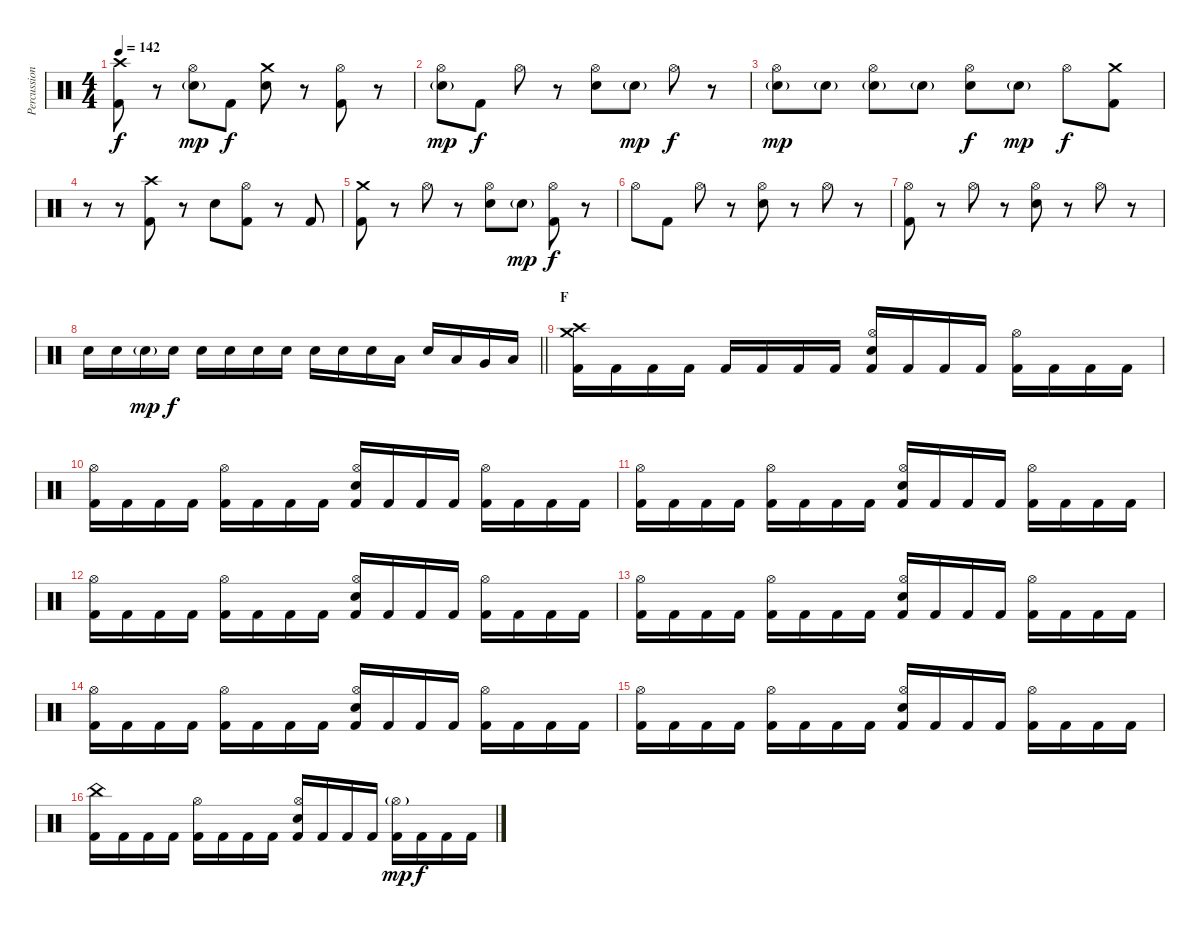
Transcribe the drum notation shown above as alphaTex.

\track ("Percussion" "Percussion") {instrument percussion}
\staff {score}
\articulation defaults
\ts (4 4)
\tempo 142
\clef neutral
\ks c
("Crash high (hit)" "Kick (hit) 2").8{dy f} r.8 ("Hi-Hat (open)" "Electric Snare (hit)"{g}).8{dy mp} "Kick (hit) 2".8{dy f} ("Crash medium (hit)" "Electric Snare (hit)").8 r.8 ("Hi-Hat (open)" "Kick (hit) 2").8 r.8 |
("Hi-Hat (open)" "Electric Snare (hit)"{g}).8{dy mp} "Kick (hit) 2".8{dy f} "Hi-Hat (open)".8 r.8 ("Hi-Hat (open)" "Electric Snare (hit)").8 "Electric Snare (hit)"{g}.8{dy mp} "Hi-Hat (open)".8{dy f} r.8 |
("Hi-Hat (open)" "Electric Snare (hit)"{g}).8{dy mp} "Electric Snare (hit)"{g}.8 ("Hi-Hat (open)" "Electric Snare (hit)"{g}).8 "Electric Snare (hit)"{g}.8 ("Hi-Hat (open)" "Electric Snare (hit)").8{dy f} "Electric Snare (hit)"{g}.8{dy mp} "Hi-Hat (open)".8{dy f} ("Crash medium (hit)" "Kick (hit) 2").8 |
r.8 r.8 ("Crash high (hit)" "Kick (hit) 2").8 r.8 "Electric Snare (hit)".8 ("Hi-Hat (open)" "Kick (hit) 2").8 r.8 "Kick (hit) 2".8 |
("Crash medium (hit)" "Kick (hit) 2").8 r.8 "Hi-Hat (open)".8 r.8 ("Hi-Hat (open)" "Electric Snare (hit)").8 "Electric Snare (hit)"{g}.8{dy mp} ("Hi-Hat (open)" "Kick (hit) 2").8{dy f} r.8 |
"Hi-Hat (open)".8 "Kick (hit) 2".8 "Hi-Hat (open)".8 r.8 ("Hi-Hat (open)" "Electric Snare (hit)").8 r.8 "Hi-Hat (open)".8 r.8 |
("Hi-Hat (open)" "Kick (hit) 2").8 r.8 "Hi-Hat (open)".8 r.8 ("Hi-Hat (open)" "Electric Snare (hit)").8 r.8 "Hi-Hat (open)".8 r.8 |
\barLineRight lightlight "Electric Snare (hit)".16 "Electric Snare (hit)".16 "Electric Snare (hit)"{g}.16{dy mp} "Electric Snare (hit)".16{dy f} "Electric Snare (hit)".16 "Electric Snare (hit)".16 "Electric Snare (hit)".16 "Electric Snare (hit)".16 "Electric Snare (hit)".16 "Electric Snare (hit)".16 "Electric Snare (hit)".16 "Low Tom (hit)".16 "Electric Snare (hit)".16 "Low Tom (hit)".16 "Very Low Tom (hit)".16 "Low Floor Tom (hit)".16
|
\section ("" "F")
("Crash medium (hit)" "Crash high (hit)" "Kick (hit) 2").16 "Kick (hit) 2".16 "Kick (hit) 2".16 "Kick (hit) 2".16 "Kick (hit) 2".16 "Kick (hit) 2".16 "Kick (hit) 2".16 "Kick (hit) 2".16 ("Hi-Hat (open)" "Electric Snare (hit)" "Kick (hit) 2").16 "Kick (hit) 2".16 "Kick (hit) 2".16 "Kick (hit) 2".16 ("Hi-Hat (open)" "Kick (hit) 2").16 "Kick (hit) 2".16 "Kick (hit) 2".16 "Kick (hit) 2".16 |
("Hi-Hat (open)" "Kick (hit) 2").16 "Kick (hit) 2".16 "Kick (hit) 2".16 "Kick (hit) 2".16 ("Hi-Hat (open)" "Kick (hit) 2").16 "Kick (hit) 2".16 "Kick (hit) 2".16 "Kick (hit) 2".16 ("Hi-Hat (open)" "Electric Snare (hit)" "Kick (hit) 2").16 "Kick (hit) 2".16 "Kick (hit) 2".16 "Kick (hit) 2".16 ("Hi-Hat (open)" "Kick (hit) 2").16 "Kick (hit) 2".16 "Kick (hit) 2".16 "Kick (hit) 2".16 |
("Hi-Hat (open)" "Kick (hit) 2").16 "Kick (hit) 2".16 "Kick (hit) 2".16 "Kick (hit) 2".16 ("Hi-Hat (open)" "Kick (hit) 2").16 "Kick (hit) 2".16 "Kick (hit) 2".16 "Kick (hit) 2".16 ("Hi-Hat (open)" "Electric Snare (hit)" "Kick (hit) 2").16 "Kick (hit) 2".16 "Kick (hit) 2".16 "Kick (hit) 2".16 ("Hi-Hat (open)" "Kick (hit) 2").16 "Kick (hit) 2".16 "Kick (hit) 2".16 "Kick (hit) 2".16 |
("Hi-Hat (open)" "Kick (hit) 2").16 "Kick (hit) 2".16 "Kick (hit) 2".16 "Kick (hit) 2".16 ("Hi-Hat (open)" "Kick (hit) 2").16 "Kick (hit) 2".16 "Kick (hit) 2".16 "Kick (hit) 2".16 ("Hi-Hat (open)" "Electric Snare (hit)" "Kick (hit) 2").16 "Kick (hit) 2".16 "Kick (hit) 2".16 "Kick (hit) 2".16 ("Hi-Hat (open)" "Kick (hit) 2").16 "Kick (hit) 2".16 "Kick (hit) 2".16 "Kick (hit) 2".16 |
("Hi-Hat (open)" "Kick (hit) 2").16 "Kick (hit) 2".16 "Kick (hit) 2".16 "Kick (hit) 2".16 ("Hi-Hat (open)" "Kick (hit) 2").16 "Kick (hit) 2".16 "Kick (hit) 2".16 "Kick (hit) 2".16 ("Hi-Hat (open)" "Electric Snare (hit)" "Kick (hit) 2").16 "Kick (hit) 2".16 "Kick (hit) 2".16 "Kick (hit) 2".16 ("Hi-Hat (open)" "Kick (hit) 2").16 "Kick (hit) 2".16 "Kick (hit) 2".16 "Kick (hit) 2".16 |
("Hi-Hat (open)" "Kick (hit) 2").16 "Kick (hit) 2".16 "Kick (hit) 2".16 "Kick (hit) 2".16 ("Hi-Hat (open)" "Kick (hit) 2").16 "Kick (hit) 2".16 "Kick (hit) 2".16 "Kick (hit) 2".16 ("Hi-Hat (open)" "Electric Snare (hit)" "Kick (hit) 2").16 "Kick (hit) 2".16 "Kick (hit) 2".16 "Kick (hit) 2".16 ("Hi-Hat (open)" "Kick (hit) 2").16 "Kick (hit) 2".16 "Kick (hit) 2".16 "Kick (hit) 2".16 |
("Hi-Hat (open)" "Kick (hit) 2").16 "Kick (hit) 2".16 "Kick (hit) 2".16 "Kick (hit) 2".16 ("Hi-Hat (open)" "Kick (hit) 2").16 "Kick (hit) 2".16 "Kick (hit) 2".16 "Kick (hit) 2".16 ("Hi-Hat (open)" "Electric Snare (hit)" "Kick (hit) 2").16 "Kick (hit) 2".16 "Kick (hit) 2".16 "Kick (hit) 2".16 ("Hi-Hat (open)" "Kick (hit) 2").16 "Kick (hit) 2".16 "Kick (hit) 2".16 "Kick (hit) 2".16 |
("China (hit)" "Kick (hit) 2").16 "Kick (hit) 2".16 "Kick (hit) 2".16 "Kick (hit) 2".16 ("Hi-Hat (open)" "Kick (hit) 2").16 "Kick (hit) 2".16 "Kick (hit) 2".16 "Kick (hit) 2".16 ("Hi-Hat (open)" "Electric Snare (hit)" "Kick (hit) 2").16 "Kick (hit) 2".16 "Kick (hit) 2".16 "Kick (hit) 2".16 ("Hi-Hat (open)"{g} "Kick (hit) 2").16{dy mp} "Kick (hit) 2".16{dy f} "Kick (hit) 2".16 "Kick (hit) 2".16
